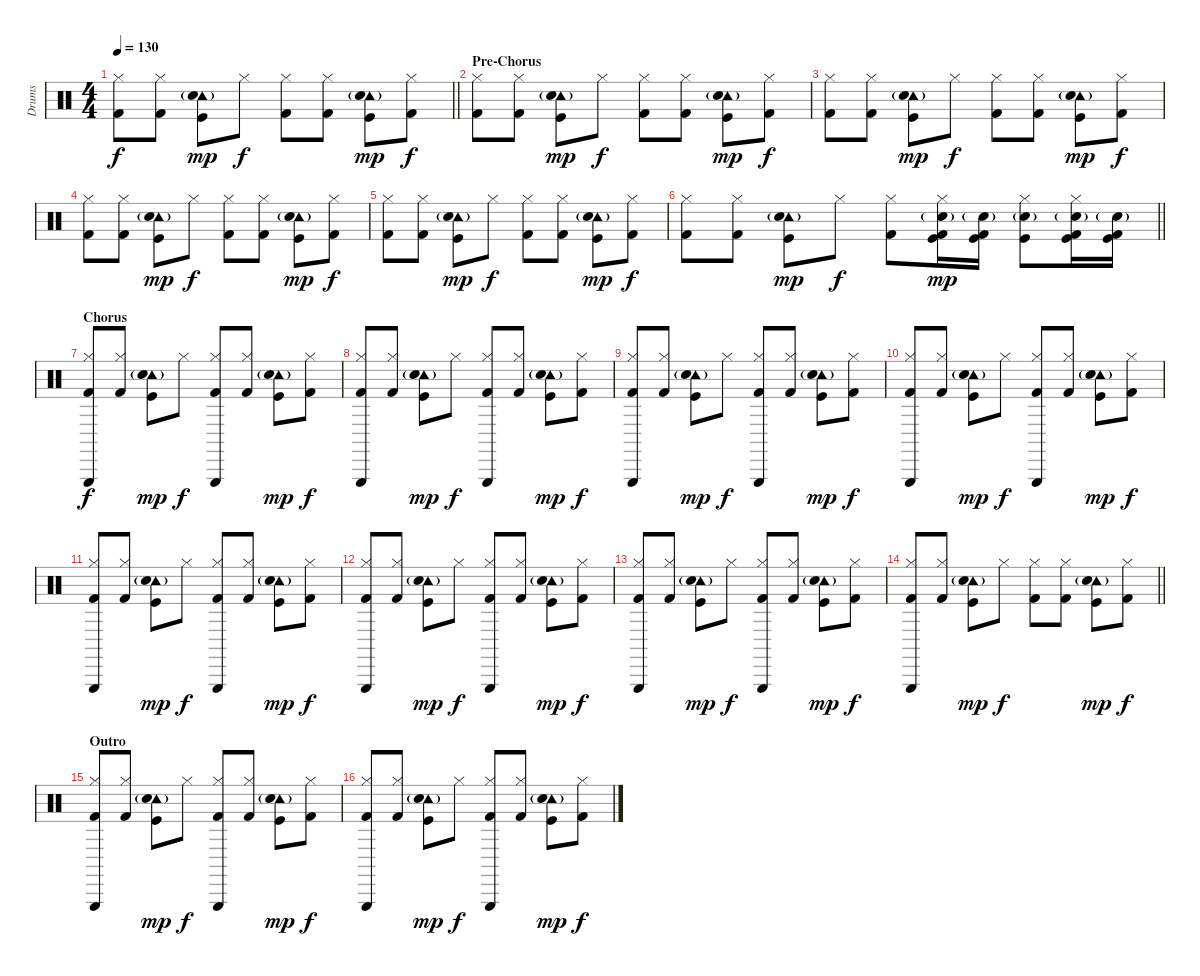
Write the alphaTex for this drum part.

\track ("Drums" "Drums") {instrument percussion}
\staff {score}
\articulation defaults
\ts (4 4)
\tempo 130
\clef neutral
\barLineRight lightlight
\ks c
("Hi-Hat (closed)" "Kick (hit) 2").8{dy f} ("Hi-Hat (closed)" "Kick (hit) 2").8 ("Tambourine (hit)" "Snare (hit) 2"{g} "Kick (hit)").8{dy mp} "Hi-Hat (closed)".8{dy f} ("Hi-Hat (closed)" "Kick (hit) 2").8 ("Hi-Hat (closed)" "Kick (hit) 2").8 ("Tambourine (hit)" "Snare (hit) 2"{g} "Kick (hit)").8{dy mp} ("Hi-Hat (closed)" "Kick (hit) 2").8{dy f} |
\section ("" "Pre-Chorus")
("Hi-Hat (closed)" "Kick (hit) 2").8 ("Hi-Hat (closed)" "Kick (hit) 2").8 ("Tambourine (hit)" "Snare (hit) 2"{g} "Kick (hit)").8{dy mp} "Hi-Hat (closed)".8{dy f} ("Hi-Hat (closed)" "Kick (hit) 2").8 ("Hi-Hat (closed)" "Kick (hit) 2").8 ("Tambourine (hit)" "Snare (hit) 2"{g} "Kick (hit)").8{dy mp} ("Hi-Hat (closed)" "Kick (hit) 2").8{dy f} |
("Hi-Hat (closed)" "Kick (hit) 2").8 ("Hi-Hat (closed)" "Kick (hit) 2").8 ("Tambourine (hit)" "Snare (hit) 2"{g} "Kick (hit)").8{dy mp} "Hi-Hat (closed)".8{dy f} ("Hi-Hat (closed)" "Kick (hit) 2").8 ("Hi-Hat (closed)" "Kick (hit) 2").8 ("Tambourine (hit)" "Snare (hit) 2"{g} "Kick (hit)").8{dy mp} ("Hi-Hat (closed)" "Kick (hit) 2").8{dy f} |
("Hi-Hat (closed)" "Kick (hit) 2").8 ("Hi-Hat (closed)" "Kick (hit) 2").8 ("Tambourine (hit)" "Snare (hit) 2"{g} "Kick (hit)").8{dy mp} "Hi-Hat (closed)".8{dy f} ("Hi-Hat (closed)" "Kick (hit) 2").8 ("Hi-Hat (closed)" "Kick (hit) 2").8 ("Tambourine (hit)" "Snare (hit) 2"{g} "Kick (hit)").8{dy mp} ("Hi-Hat (closed)" "Kick (hit) 2").8{dy f} |
("Hi-Hat (closed)" "Kick (hit) 2").8 ("Hi-Hat (closed)" "Kick (hit) 2").8 ("Tambourine (hit)" "Snare (hit) 2"{g} "Kick (hit)").8{dy mp} "Hi-Hat (closed)".8{dy f} ("Hi-Hat (closed)" "Kick (hit) 2").8 ("Hi-Hat (closed)" "Kick (hit) 2").8 ("Tambourine (hit)" "Snare (hit) 2"{g} "Kick (hit)").8{dy mp} ("Hi-Hat (closed)" "Kick (hit) 2").8{dy f} |
\barLineRight lightlight
("Hi-Hat (closed)" "Kick (hit) 2").8 ("Hi-Hat (closed)" "Kick (hit) 2").8 ("Tambourine (hit)" "Snare (hit) 2"{g} "Kick (hit)").8{dy mp} "Hi-Hat (closed)".8{dy f} ("Hi-Hat (closed)" "Kick (hit) 2").8 ("Hi-Hat (closed)" "Snare (hit) 2"{g} "Kick (hit)" "Kick (hit) 2").16{dy mp} ("Snare (hit) 2"{g} "Kick (hit)" "Kick (hit) 2").16 ("Hi-Hat (closed)" "Snare (hit) 2"{g} "Kick (hit)").8 ("Hi-Hat (closed)" "Snare (hit) 2"{g} "Kick (hit)" "Kick (hit) 2").16 ("Snare (hit) 2"{g} "Kick (hit)" "Kick (hit) 2").16 |
\section ("" "Chorus")
("Hi-Hat (closed)" "Triangle (hit)" "Kick (hit) 2").8{dy f} ("Hi-Hat (closed)" "Kick (hit) 2").8 ("Tambourine (hit)" "Snare (hit) 2"{g} "Kick (hit)").8{dy mp} "Hi-Hat (closed)".8{dy f} ("Hi-Hat (closed)" "Triangle (hit)" "Kick (hit) 2").8 ("Hi-Hat (closed)" "Kick (hit) 2").8 ("Tambourine (hit)" "Snare (hit) 2"{g} "Kick (hit)").8{dy mp} ("Hi-Hat (closed)" "Kick (hit) 2").8{dy f} |
("Hi-Hat (closed)" "Triangle (hit)" "Kick (hit) 2").8 ("Hi-Hat (closed)" "Kick (hit) 2").8 ("Tambourine (hit)" "Snare (hit) 2"{g} "Kick (hit)").8{dy mp} "Hi-Hat (closed)".8{dy f} ("Hi-Hat (closed)" "Triangle (hit)" "Kick (hit) 2").8 ("Hi-Hat (closed)" "Kick (hit) 2").8 ("Tambourine (hit)" "Snare (hit) 2"{g} "Kick (hit)").8{dy mp} ("Hi-Hat (closed)" "Kick (hit) 2").8{dy f} |
("Hi-Hat (closed)" "Triangle (hit)" "Kick (hit) 2").8 ("Hi-Hat (closed)" "Kick (hit) 2").8 ("Tambourine (hit)" "Snare (hit) 2"{g} "Kick (hit)").8{dy mp} "Hi-Hat (closed)".8{dy f} ("Hi-Hat (closed)" "Triangle (hit)" "Kick (hit) 2").8 ("Hi-Hat (closed)" "Kick (hit) 2").8 ("Tambourine (hit)" "Snare (hit) 2"{g} "Kick (hit)").8{dy mp} ("Hi-Hat (closed)" "Kick (hit) 2").8{dy f} |
("Hi-Hat (closed)" "Triangle (hit)" "Kick (hit) 2").8 ("Hi-Hat (closed)" "Kick (hit) 2").8 ("Tambourine (hit)" "Snare (hit) 2"{g} "Kick (hit)").8{dy mp} "Hi-Hat (closed)".8{dy f} ("Hi-Hat (closed)" "Triangle (hit)" "Kick (hit) 2").8 ("Hi-Hat (closed)" "Kick (hit) 2").8 ("Tambourine (hit)" "Snare (hit) 2"{g} "Kick (hit)").8{dy mp} ("Hi-Hat (closed)" "Kick (hit) 2").8{dy f} |
("Hi-Hat (closed)" "Triangle (hit)" "Kick (hit) 2").8 ("Hi-Hat (closed)" "Kick (hit) 2").8 ("Tambourine (hit)" "Snare (hit) 2"{g} "Kick (hit)").8{dy mp} "Hi-Hat (closed)".8{dy f} ("Hi-Hat (closed)" "Triangle (hit)" "Kick (hit) 2").8 ("Hi-Hat (closed)" "Kick (hit) 2").8 ("Tambourine (hit)" "Snare (hit) 2"{g} "Kick (hit)").8{dy mp} ("Hi-Hat (closed)" "Kick (hit) 2").8{dy f} |
("Hi-Hat (closed)" "Triangle (hit)" "Kick (hit) 2").8 ("Hi-Hat (closed)" "Kick (hit) 2").8 ("Tambourine (hit)" "Snare (hit) 2"{g} "Kick (hit)").8{dy mp} "Hi-Hat (closed)".8{dy f} ("Hi-Hat (closed)" "Triangle (hit)" "Kick (hit) 2").8 ("Hi-Hat (closed)" "Kick (hit) 2").8 ("Tambourine (hit)" "Snare (hit) 2"{g} "Kick (hit)").8{dy mp} ("Hi-Hat (closed)" "Kick (hit) 2").8{dy f} |
("Hi-Hat (closed)" "Triangle (hit)" "Kick (hit) 2").8 ("Hi-Hat (closed)" "Kick (hit) 2").8 ("Tambourine (hit)" "Snare (hit) 2"{g} "Kick (hit)").8{dy mp} "Hi-Hat (closed)".8{dy f} ("Hi-Hat (closed)" "Triangle (hit)" "Kick (hit) 2").8 ("Hi-Hat (closed)" "Kick (hit) 2").8 ("Tambourine (hit)" "Snare (hit) 2"{g} "Kick (hit)").8{dy mp} ("Hi-Hat (closed)" "Kick (hit) 2").8{dy f} |
\barLineRight lightlight
("Hi-Hat (closed)" "Triangle (hit)" "Kick (hit) 2").8 ("Hi-Hat (closed)" "Kick (hit) 2").8 ("Tambourine (hit)" "Snare (hit) 2"{g} "Kick (hit)").8{dy mp} "Hi-Hat (closed)".8{dy f} ("Hi-Hat (closed)" "Kick (hit) 2").8 ("Hi-Hat (closed)" "Kick (hit) 2").8 ("Tambourine (hit)" "Snare (hit) 2"{g} "Kick (hit)").8{dy mp} ("Hi-Hat (closed)" "Kick (hit) 2").8{dy f} |
\section ("" "Outro")
("Hi-Hat (closed)" "Triangle (hit)" "Kick (hit) 2").8{volume 2} ("Hi-Hat (closed)" "Kick (hit) 2").8 ("Tambourine (hit)" "Snare (hit) 2"{g} "Kick (hit)").8{dy mp} "Hi-Hat (closed)".8{dy f} ("Hi-Hat (closed)" "Triangle (hit)" "Kick (hit) 2").8 ("Hi-Hat (closed)" "Kick (hit) 2").8 ("Tambourine (hit)" "Snare (hit) 2"{g} "Kick (hit)").8{dy mp} ("Hi-Hat (closed)" "Kick (hit) 2").8{dy f} |
("Hi-Hat (closed)" "Triangle (hit)" "Kick (hit) 2").8 ("Hi-Hat (closed)" "Kick (hit) 2").8 ("Tambourine (hit)" "Snare (hit) 2"{g} "Kick (hit)").8{dy mp} "Hi-Hat (closed)".8{dy f} ("Hi-Hat (closed)" "Triangle (hit)" "Kick (hit) 2").8 ("Hi-Hat (closed)" "Kick (hit) 2").8 ("Tambourine (hit)" "Snare (hit) 2"{g} "Kick (hit)").8{dy mp} ("Hi-Hat (closed)" "Kick (hit) 2").8{dy f}
